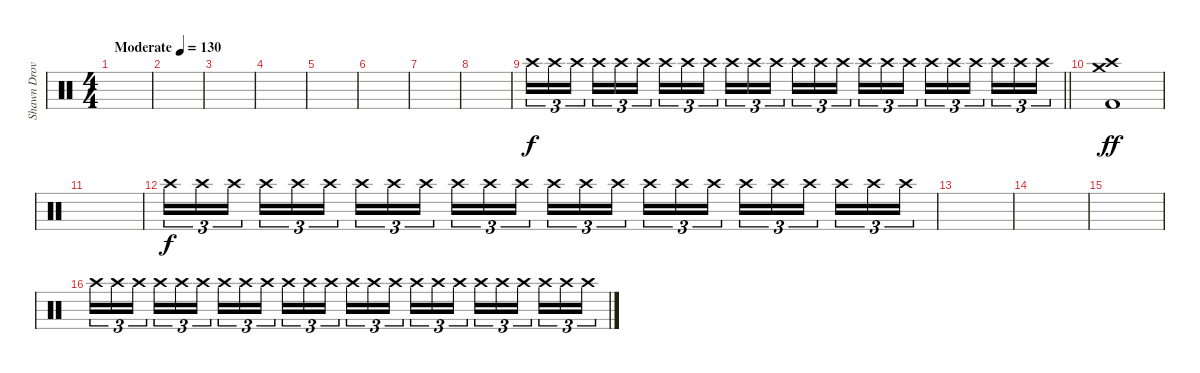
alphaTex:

\track ("Shawn Drover" "Shawn Drov") {instrument percussion}
\staff {score}
\articulation defaults
\ts (4 4)
\tempo (130 "Moderate")
\clef neutral
\ks c
|
|
|
|
|
|
|
|
\barLineRight lightlight "Crash high (hit)".16{tu (3 2) volume 14} "Crash high (hit)".16{tu (3 2)} "Crash high (hit)".16{tu (3 2) beam splitsecondary} "Crash high (hit)".16{tu (3 2)} "Crash high (hit)".16{tu (3 2)} "Crash high (hit)".16{tu (3 2)} "Crash high (hit)".16{tu (3 2)} "Crash high (hit)".16{tu (3 2)} "Crash high (hit)".16{tu (3 2) beam splitsecondary} "Crash high (hit)".16{tu (3 2)} "Crash high (hit)".16{tu (3 2)} "Crash high (hit)".16{tu (3 2)} "Crash high (hit)".16{tu (3 2)} "Crash high (hit)".16{tu (3 2)} "Crash high (hit)".16{tu (3 2) beam splitsecondary} "Crash high (hit)".16{tu (3 2)} "Crash high (hit)".16{tu (3 2)} "Crash high (hit)".16{tu (3 2)} "Crash high (hit)".16{tu (3 2)} "Crash high (hit)".16{tu (3 2)} "Crash high (hit)".16{tu (3 2) beam splitsecondary} "Crash high (hit)".16{tu (3 2)} "Crash high (hit)".16{tu (3 2)} "Crash high (hit)".16{tu (3 2)}
|
("Crash high (hit)" "Crash medium (hit)" "Kick (hit) 2").1{dy ff} |
|
"Crash high (hit)".16{tu (3 2) dy f volume 14} "Crash high (hit)".16{tu (3 2)} "Crash high (hit)".16{tu (3 2) beam splitsecondary} "Crash high (hit)".16{tu (3 2)} "Crash high (hit)".16{tu (3 2)} "Crash high (hit)".16{tu (3 2)} "Crash high (hit)".16{tu (3 2)} "Crash high (hit)".16{tu (3 2)} "Crash high (hit)".16{tu (3 2) beam splitsecondary} "Crash high (hit)".16{tu (3 2)} "Crash high (hit)".16{tu (3 2)} "Crash high (hit)".16{tu (3 2)} "Crash high (hit)".16{tu (3 2)} "Crash high (hit)".16{tu (3 2)} "Crash high (hit)".16{tu (3 2) beam splitsecondary} "Crash high (hit)".16{tu (3 2)} "Crash high (hit)".16{tu (3 2)} "Crash high (hit)".16{tu (3 2)} "Crash high (hit)".16{tu (3 2)} "Crash high (hit)".16{tu (3 2)} "Crash high (hit)".16{tu (3 2) beam splitsecondary} "Crash high (hit)".16{tu (3 2)} "Crash high (hit)".16{tu (3 2)} "Crash high (hit)".16{tu (3 2)} |
|
|
|
"Crash high (hit)".16{tu (3 2) volume 14} "Crash high (hit)".16{tu (3 2)} "Crash high (hit)".16{tu (3 2) beam splitsecondary} "Crash high (hit)".16{tu (3 2)} "Crash high (hit)".16{tu (3 2)} "Crash high (hit)".16{tu (3 2)} "Crash high (hit)".16{tu (3 2)} "Crash high (hit)".16{tu (3 2)} "Crash high (hit)".16{tu (3 2) beam splitsecondary} "Crash high (hit)".16{tu (3 2)} "Crash high (hit)".16{tu (3 2)} "Crash high (hit)".16{tu (3 2)} "Crash high (hit)".16{tu (3 2)} "Crash high (hit)".16{tu (3 2)} "Crash high (hit)".16{tu (3 2) beam splitsecondary} "Crash high (hit)".16{tu (3 2)} "Crash high (hit)".16{tu (3 2)} "Crash high (hit)".16{tu (3 2)} "Crash high (hit)".16{tu (3 2)} "Crash high (hit)".16{tu (3 2)} "Crash high (hit)".16{tu (3 2) beam splitsecondary} "Crash high (hit)".16{tu (3 2)} "Crash high (hit)".16{tu (3 2)} "Crash high (hit)".16{tu (3 2)}
